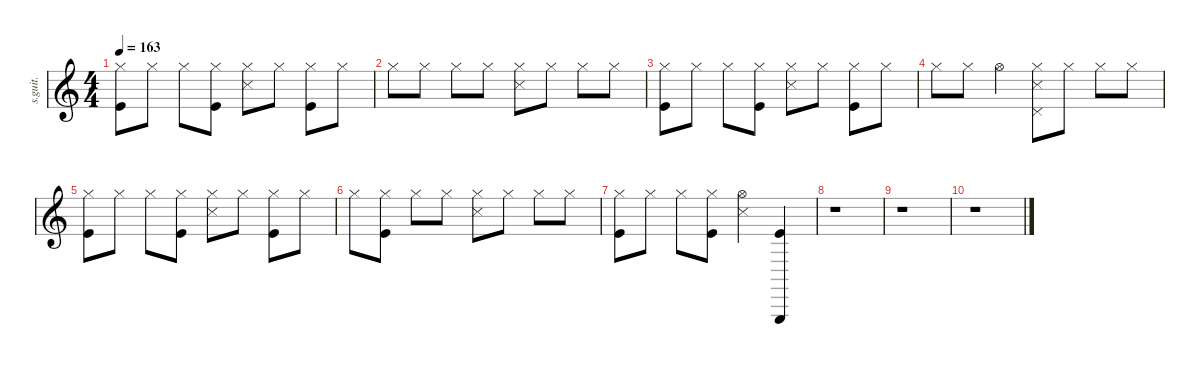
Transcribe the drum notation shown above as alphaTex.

\defaultSystemsLayout 4
\hideDynamics
\bracketExtendMode nobrackets
\track ("John Dolmayan" "s.guit.") {instrument percussion}
\staff {score}
\articulation defaults
\ts (4 4)
\tempo 163
\clef g2
\ks c
("Hi-Hat (closed)" "Kick (hit)").8{lyrics (0 "") lyrics (1 "") lyrics (2 "") lyrics (3 "") lyrics (4 "") dy f} "Hi-Hat (closed)".8{lyrics (0 "") lyrics (1 "") lyrics (2 "") lyrics (3 "") lyrics (4 "")} "Hi-Hat (closed)".8{lyrics (0 "") lyrics (1 "") lyrics (2 "") lyrics (3 "") lyrics (4 "")} ("Hi-Hat (closed)" "Kick (hit)").8{lyrics (0 "") lyrics (1 "") lyrics (2 "") lyrics (3 "") lyrics (4 "")} ("Hi-Hat (closed)" "Snare (side stick) 3").8{lyrics (0 "") lyrics (1 "") lyrics (2 "") lyrics (3 "") lyrics (4 "")} "Hi-Hat (closed)".8{lyrics (0 "") lyrics (1 "") lyrics (2 "") lyrics (3 "") lyrics (4 "")} ("Hi-Hat (closed)" "Kick (hit)").8{lyrics (0 "") lyrics (1 "") lyrics (2 "") lyrics (3 "") lyrics (4 "")} "Hi-Hat (closed)".8{lyrics (0 "") lyrics (1 "") lyrics (2 "") lyrics (3 "") lyrics (4 "")} |
"Hi-Hat (closed)".8{lyrics (0 "") lyrics (1 "") lyrics (2 "") lyrics (3 "") lyrics (4 "")} "Hi-Hat (closed)".8{lyrics (0 "") lyrics (1 "") lyrics (2 "") lyrics (3 "") lyrics (4 "")} "Hi-Hat (closed)".8{lyrics (0 "") lyrics (1 "") lyrics (2 "") lyrics (3 "") lyrics (4 "")} "Hi-Hat (closed)".8{lyrics (0 "") lyrics (1 "") lyrics (2 "") lyrics (3 "") lyrics (4 "")} ("Hi-Hat (closed)" "Snare (side stick) 3").8{lyrics (0 "") lyrics (1 "") lyrics (2 "") lyrics (3 "") lyrics (4 "")} "Hi-Hat (closed)".8{lyrics (0 "") lyrics (1 "") lyrics (2 "") lyrics (3 "") lyrics (4 "")} "Hi-Hat (closed)".8{lyrics (0 "") lyrics (1 "") lyrics (2 "") lyrics (3 "") lyrics (4 "")} "Hi-Hat (closed)".8{lyrics (0 "") lyrics (1 "") lyrics (2 "") lyrics (3 "") lyrics (4 "")} |
("Hi-Hat (closed)" "Kick (hit)").8{lyrics (0 "") lyrics (1 "") lyrics (2 "") lyrics (3 "") lyrics (4 "")} "Hi-Hat (closed)".8{lyrics (0 "") lyrics (1 "") lyrics (2 "") lyrics (3 "") lyrics (4 "")} "Hi-Hat (closed)".8{lyrics (0 "") lyrics (1 "") lyrics (2 "") lyrics (3 "") lyrics (4 "")} ("Hi-Hat (closed)" "Kick (hit)").8{lyrics (0 "") lyrics (1 "") lyrics (2 "") lyrics (3 "") lyrics (4 "")} ("Hi-Hat (closed)" "Snare (side stick) 3").8{lyrics (0 "") lyrics (1 "") lyrics (2 "") lyrics (3 "") lyrics (4 "")} "Hi-Hat (closed)".8{lyrics (0 "") lyrics (1 "") lyrics (2 "") lyrics (3 "") lyrics (4 "")} ("Hi-Hat (closed)" "Kick (hit)").8{lyrics (0 "") lyrics (1 "") lyrics (2 "") lyrics (3 "") lyrics (4 "")} "Hi-Hat (closed)".8{lyrics (0 "") lyrics (1 "") lyrics (2 "") lyrics (3 "") lyrics (4 "")} |
"Hi-Hat (closed)".8{lyrics (0 "") lyrics (1 "") lyrics (2 "") lyrics (3 "") lyrics (4 "")} "Hi-Hat (closed)".8{lyrics (0 "") lyrics (1 "") lyrics (2 "") lyrics (3 "") lyrics (4 "")} "Hi-Hat (open)".4{lyrics (0 "") lyrics (1 "") lyrics (2 "") lyrics (3 "") lyrics (4 "")} ("Hi-Hat (closed)" "Pedal Hi-Hat (hit)" "Snare (side stick) 3").8{lyrics (0 "") lyrics (1 "") lyrics (2 "") lyrics (3 "") lyrics (4 "")} "Hi-Hat (closed)".8{lyrics (0 "") lyrics (1 "") lyrics (2 "") lyrics (3 "") lyrics (4 "")} "Hi-Hat (closed)".8{lyrics (0 "") lyrics (1 "") lyrics (2 "") lyrics (3 "") lyrics (4 "")} "Hi-Hat (closed)".8{lyrics (0 "") lyrics (1 "") lyrics (2 "") lyrics (3 "") lyrics (4 "")} |
("Hi-Hat (closed)" "Kick (hit)").8{lyrics (0 "") lyrics (1 "") lyrics (2 "") lyrics (3 "") lyrics (4 "")} "Hi-Hat (closed)".8{lyrics (0 "") lyrics (1 "") lyrics (2 "") lyrics (3 "") lyrics (4 "")} "Hi-Hat (closed)".8{lyrics (0 "") lyrics (1 "") lyrics (2 "") lyrics (3 "") lyrics (4 "")} ("Hi-Hat (closed)" "Kick (hit)").8{lyrics (0 "") lyrics (1 "") lyrics (2 "") lyrics (3 "") lyrics (4 "")} ("Hi-Hat (closed)" "Snare (side stick) 3").8{lyrics (0 "") lyrics (1 "") lyrics (2 "") lyrics (3 "") lyrics (4 "")} "Hi-Hat (closed)".8{lyrics (0 "") lyrics (1 "") lyrics (2 "") lyrics (3 "") lyrics (4 "")} ("Hi-Hat (closed)" "Kick (hit)").8{lyrics (0 "") lyrics (1 "") lyrics (2 "") lyrics (3 "") lyrics (4 "")} "Hi-Hat (closed)".8{lyrics (0 "") lyrics (1 "") lyrics (2 "") lyrics (3 "") lyrics (4 "")} |
"Hi-Hat (closed)".8{lyrics (0 "") lyrics (1 "") lyrics (2 "") lyrics (3 "") lyrics (4 "")} ("Hi-Hat (closed)" "Kick (hit)").8{lyrics (0 "") lyrics (1 "") lyrics (2 "") lyrics (3 "") lyrics (4 "")} "Hi-Hat (closed)".8{lyrics (0 "") lyrics (1 "") lyrics (2 "") lyrics (3 "") lyrics (4 "")} "Hi-Hat (closed)".8{lyrics (0 "") lyrics (1 "") lyrics (2 "") lyrics (3 "") lyrics (4 "")} ("Hi-Hat (closed)" "Snare (side stick) 3").8{lyrics (0 "") lyrics (1 "") lyrics (2 "") lyrics (3 "") lyrics (4 "")} "Hi-Hat (closed)".8{lyrics (0 "") lyrics (1 "") lyrics (2 "") lyrics (3 "") lyrics (4 "")} "Hi-Hat (closed)".8{lyrics (0 "") lyrics (1 "") lyrics (2 "") lyrics (3 "") lyrics (4 "")} "Hi-Hat (closed)".8{lyrics (0 "") lyrics (1 "") lyrics (2 "") lyrics (3 "") lyrics (4 "")} |
("Hi-Hat (closed)" "Kick (hit)").8{lyrics (0 "") lyrics (1 "") lyrics (2 "") lyrics (3 "") lyrics (4 "")} "Hi-Hat (closed)".8{lyrics (0 "") lyrics (1 "") lyrics (2 "") lyrics (3 "") lyrics (4 "")} "Hi-Hat (closed)".8{lyrics (0 "") lyrics (1 "") lyrics (2 "") lyrics (3 "") lyrics (4 "")} ("Hi-Hat (closed)" "Kick (hit)").8{lyrics (0 "") lyrics (1 "") lyrics (2 "") lyrics (3 "") lyrics (4 "")} ("Hi-Hat (open)" "Snare (side stick) 3").4{lyrics (0 "") lyrics (1 "") lyrics (2 "") lyrics (3 "") lyrics (4 "")} ("Triangle (hit)" "Kick (hit)").4{lyrics (0 "") lyrics (1 "") lyrics (2 "") lyrics (3 "") lyrics (4 "")} |
r.1 |
r.1 |
r.1
